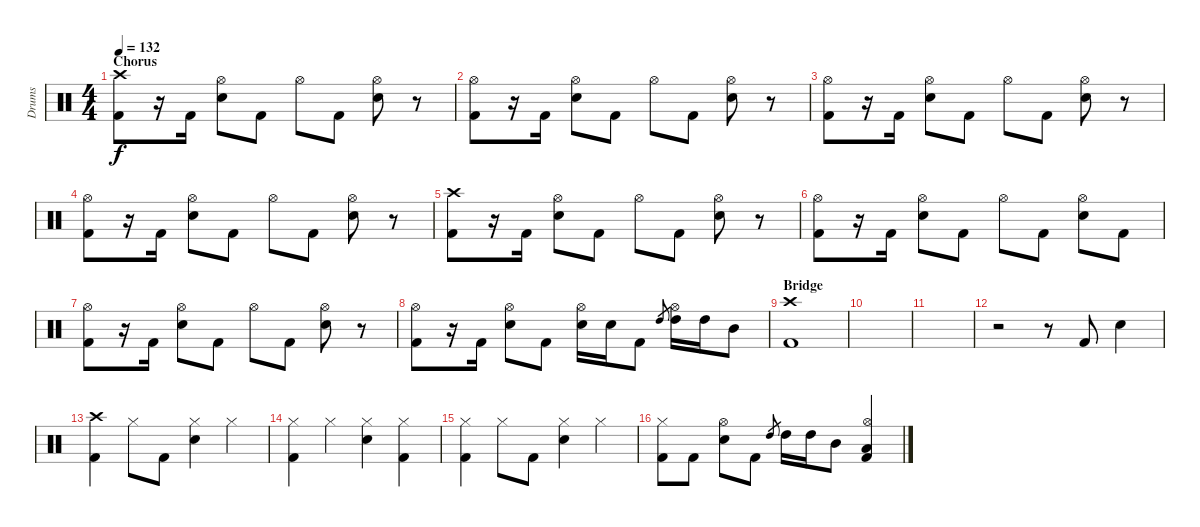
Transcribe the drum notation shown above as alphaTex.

\track ("Drums" "Drums") {instrument percussion}
\staff {score}
\articulation defaults
\ts (4 4)
\section ("" "Chorus")
\tempo 132
\clef neutral
\ks c
("Crash high (hit)" "Kick (hit) 2").8{dy f} r.16 "Kick (hit) 2".16 ("Hi-Hat (open)" "Snare (hit) 2").8 "Kick (hit) 2".8 "Hi-Hat (open)".8 "Kick (hit) 2".8 ("Hi-Hat (open)" "Snare (hit) 2").8 r.8 |
("Hi-Hat (open)" "Kick (hit) 2").8 r.16 "Kick (hit) 2".16 ("Hi-Hat (open)" "Snare (hit) 2").8 "Kick (hit) 2".8 "Hi-Hat (open)".8 "Kick (hit) 2".8 ("Hi-Hat (open)" "Snare (hit) 2").8 r.8 |
("Hi-Hat (open)" "Kick (hit) 2").8 r.16 "Kick (hit) 2".16 ("Hi-Hat (open)" "Snare (hit) 2").8 "Kick (hit) 2".8 "Hi-Hat (open)".8 "Kick (hit) 2".8 ("Hi-Hat (open)" "Snare (hit) 2").8 r.8 |
("Hi-Hat (open)" "Kick (hit) 2").8 r.16 "Kick (hit) 2".16 ("Hi-Hat (open)" "Snare (hit) 2").8 "Kick (hit) 2".8 "Hi-Hat (open)".8 "Kick (hit) 2".8 ("Hi-Hat (open)" "Snare (hit) 2").8 r.8 |
("Crash high (hit)" "Kick (hit) 2").8 r.16 "Kick (hit) 2".16 ("Hi-Hat (open)" "Snare (hit) 2").8 "Kick (hit) 2".8 "Hi-Hat (open)".8 "Kick (hit) 2".8 ("Hi-Hat (open)" "Snare (hit) 2").8 r.8 |
("Hi-Hat (open)" "Kick (hit) 2").8 r.16 "Kick (hit) 2".16 ("Hi-Hat (open)" "Snare (hit) 2").8 "Kick (hit) 2".8 "Hi-Hat (open)".8 "Kick (hit) 2".8 ("Hi-Hat (open)" "Snare (hit) 2").8 "Kick (hit) 2".8 |
("Hi-Hat (open)" "Kick (hit) 2").8 r.16 "Kick (hit) 2".16 ("Hi-Hat (open)" "Snare (hit) 2").8 "Kick (hit) 2".8 "Hi-Hat (open)".8 "Kick (hit) 2".8 ("Hi-Hat (open)" "Snare (hit) 2").8 r.8 |
("Hi-Hat (open)" "Kick (hit) 2").8 r.16 "Kick (hit) 2".16 ("Hi-Hat (open)" "Snare (hit) 2").8 "Kick (hit) 2".8 ("Hi-Hat (open)" "Snare (hit) 2").16 "Snare (hit) 2".16 "Kick (hit) 2".8 "High Tom (hit)".8{gr} ("Hi-Hat (open)" "High Tom (hit)").16 "High Tom (hit)".16 "Mid Tom (hit)".8 |
\section ("" "Bridge")
("Crash high (hit)" "Kick (hit) 2").1 |
|
|
r.2 r.8 "Kick (hit) 2".8 "Snare (hit) 2".4 |
("Crash high (hit)" "Kick (hit) 2").4 "Hi-Hat (closed)".8 "Kick (hit) 2".8 ("Hi-Hat (closed)" "Snare (hit) 2").4 "Hi-Hat (closed)".4 |
("Hi-Hat (closed)" "Kick (hit) 2").4 "Hi-Hat (closed)".4 ("Hi-Hat (closed)" "Snare (hit) 2").4 ("Hi-Hat (closed)" "Kick (hit) 2").4 |
("Hi-Hat (closed)" "Kick (hit) 2").4 "Hi-Hat (closed)".8 "Kick (hit) 2".8 ("Hi-Hat (closed)" "Snare (hit) 2").4 "Hi-Hat (closed)".4 |
("Hi-Hat (closed)" "Kick (hit) 2").8 "Kick (hit) 2".8 ("Hi-Hat (open)" "Snare (hit) 2").8 "Kick (hit) 2".8 "High Tom (hit)".8{gr} "High Tom (hit)".16 "High Tom (hit)".16 "Mid Tom (hit)".8 ("Hi-Hat (open)" "Low Tom (hit)" "Kick (hit) 2").4
